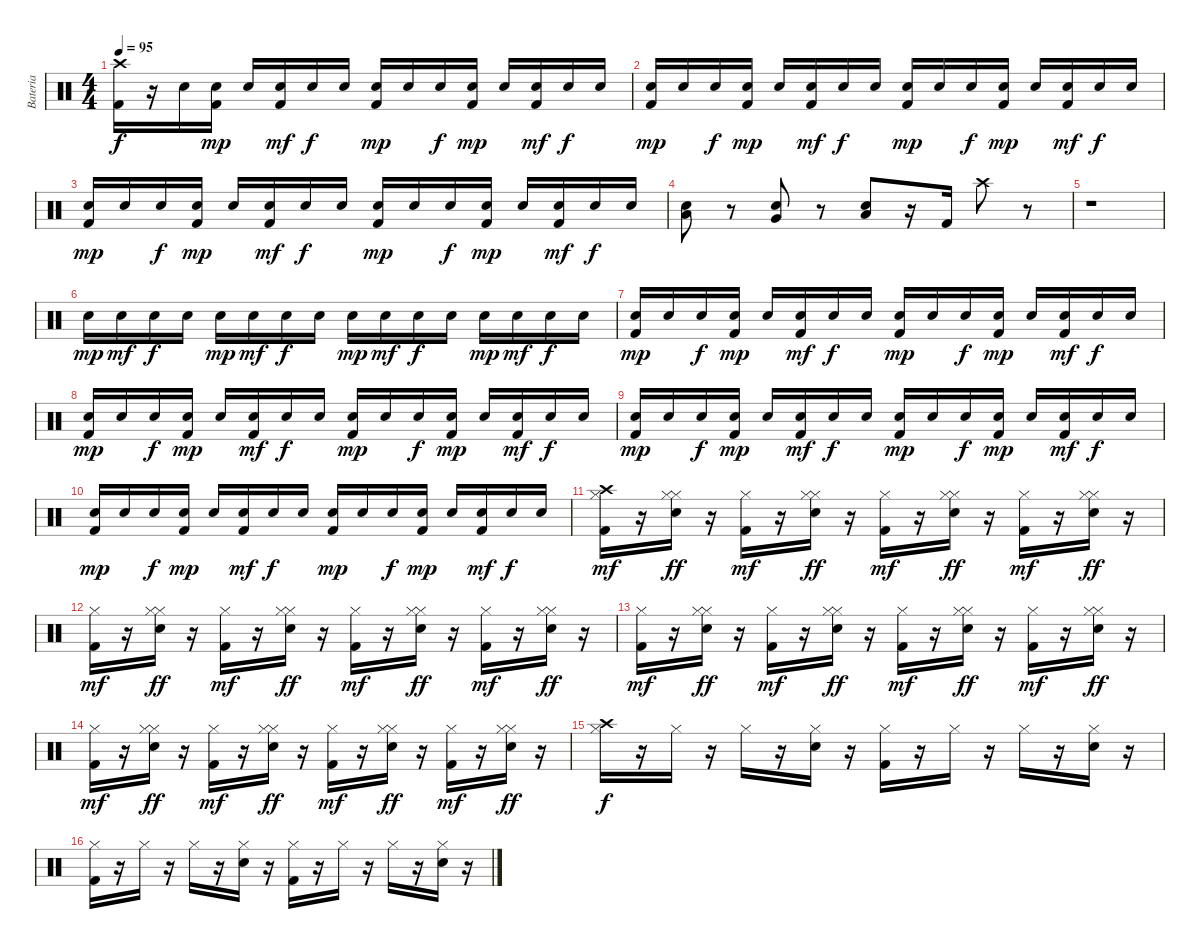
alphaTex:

\track ("Bateria" "Bateria") {instrument percussion}
\staff {score}
\articulation defaults
\ts (4 4)
\tempo 95
\clef neutral
\ks c
("Crash high (hit)" "Kick (hit) 2").16{dy f} r.16 "Snare (hit) 2".16 ("Snare (hit) 2" "Kick (hit) 2").16{dy mp} "Snare (hit) 2".16 ("Snare (hit) 2" "Kick (hit) 2").16{dy mf} "Snare (hit) 2".16{dy f} "Snare (hit) 2".16 ("Snare (hit) 2" "Kick (hit) 2").16{dy mp} "Snare (hit) 2".16 "Snare (hit) 2".16{dy f} ("Snare (hit) 2" "Kick (hit) 2").16{dy mp} "Snare (hit) 2".16 ("Snare (hit) 2" "Kick (hit) 2").16{dy mf} "Snare (hit) 2".16{dy f} "Snare (hit) 2".16 |
("Snare (hit) 2" "Kick (hit) 2").16{dy mp} "Snare (hit) 2".16 "Snare (hit) 2".16{dy f} ("Snare (hit) 2" "Kick (hit) 2").16{dy mp} "Snare (hit) 2".16 ("Snare (hit) 2" "Kick (hit) 2").16{dy mf} "Snare (hit) 2".16{dy f} "Snare (hit) 2".16 ("Snare (hit) 2" "Kick (hit) 2").16{dy mp} "Snare (hit) 2".16 "Snare (hit) 2".16{dy f} ("Snare (hit) 2" "Kick (hit) 2").16{dy mp} "Snare (hit) 2".16 ("Snare (hit) 2" "Kick (hit) 2").16{dy mf} "Snare (hit) 2".16{dy f} "Snare (hit) 2".16 |
("Snare (hit) 2" "Kick (hit) 2").16{dy mp} "Snare (hit) 2".16 "Snare (hit) 2".16{dy f} ("Snare (hit) 2" "Kick (hit) 2").16{dy mp} "Snare (hit) 2".16 ("Snare (hit) 2" "Kick (hit) 2").16{dy mf} "Snare (hit) 2".16{dy f} "Snare (hit) 2".16 ("Snare (hit) 2" "Kick (hit) 2").16{dy mp} "Snare (hit) 2".16 "Snare (hit) 2".16{dy f} ("Snare (hit) 2" "Kick (hit) 2").16{dy mp} "Snare (hit) 2".16 ("Snare (hit) 2" "Kick (hit) 2").16{dy mf} "Snare (hit) 2".16{dy f} "Snare (hit) 2".16 |
("Low Tom (hit)" "Snare (hit) 2").8 r.8 ("Very Low Tom (hit)" "Snare (hit) 2").8 r.8 ("Low Floor Tom (hit)" "Snare (hit) 2").8 r.16 "Kick (hit) 2".16 "Crash high (hit)".8 r.8 |
r.1 |
"Snare (hit) 2".16{dy mp} "Snare (hit) 2".16{dy mf} "Snare (hit) 2".16{dy f} "Snare (hit) 2".16 "Snare (hit) 2".16{dy mp} "Snare (hit) 2".16{dy mf} "Snare (hit) 2".16{dy f} "Snare (hit) 2".16 "Snare (hit) 2".16{dy mp} "Snare (hit) 2".16{dy mf} "Snare (hit) 2".16{dy f} "Snare (hit) 2".16 "Snare (hit) 2".16{dy mp} "Snare (hit) 2".16{dy mf} "Snare (hit) 2".16{dy f} "Snare (hit) 2".16 |
("Snare (hit) 2" "Kick (hit) 2").16{dy mp} "Snare (hit) 2".16 "Snare (hit) 2".16{dy f} ("Snare (hit) 2" "Kick (hit) 2").16{dy mp} "Snare (hit) 2".16 ("Snare (hit) 2" "Kick (hit) 2").16{dy mf} "Snare (hit) 2".16{dy f} "Snare (hit) 2".16 ("Snare (hit) 2" "Kick (hit) 2").16{dy mp} "Snare (hit) 2".16 "Snare (hit) 2".16{dy f} ("Snare (hit) 2" "Kick (hit) 2").16{dy mp} "Snare (hit) 2".16 ("Snare (hit) 2" "Kick (hit) 2").16{dy mf} "Snare (hit) 2".16{dy f} "Snare (hit) 2".16 |
("Snare (hit) 2" "Kick (hit) 2").16{dy mp} "Snare (hit) 2".16 "Snare (hit) 2".16{dy f} ("Snare (hit) 2" "Kick (hit) 2").16{dy mp} "Snare (hit) 2".16 ("Snare (hit) 2" "Kick (hit) 2").16{dy mf} "Snare (hit) 2".16{dy f} "Snare (hit) 2".16 ("Snare (hit) 2" "Kick (hit) 2").16{dy mp} "Snare (hit) 2".16 "Snare (hit) 2".16{dy f} ("Snare (hit) 2" "Kick (hit) 2").16{dy mp} "Snare (hit) 2".16 ("Snare (hit) 2" "Kick (hit) 2").16{dy mf} "Snare (hit) 2".16{dy f} "Snare (hit) 2".16 |
("Snare (hit) 2" "Kick (hit) 2").16{dy mp} "Snare (hit) 2".16 "Snare (hit) 2".16{dy f} ("Snare (hit) 2" "Kick (hit) 2").16{dy mp} "Snare (hit) 2".16 ("Snare (hit) 2" "Kick (hit) 2").16{dy mf} "Snare (hit) 2".16{dy f} "Snare (hit) 2".16 ("Snare (hit) 2" "Kick (hit) 2").16{dy mp} "Snare (hit) 2".16 "Snare (hit) 2".16{dy f} ("Snare (hit) 2" "Kick (hit) 2").16{dy mp} "Snare (hit) 2".16 ("Snare (hit) 2" "Kick (hit) 2").16{dy mf} "Snare (hit) 2".16{dy f} "Snare (hit) 2".16 |
("Snare (hit) 2" "Kick (hit) 2").16{dy mp} "Snare (hit) 2".16 "Snare (hit) 2".16{dy f} ("Snare (hit) 2" "Kick (hit) 2").16{dy mp} "Snare (hit) 2".16 ("Snare (hit) 2" "Kick (hit) 2").16{dy mf} "Snare (hit) 2".16{dy f} "Snare (hit) 2".16 ("Snare (hit) 2" "Kick (hit) 2").16{dy mp} "Snare (hit) 2".16 "Snare (hit) 2".16{dy f} ("Snare (hit) 2" "Kick (hit) 2").16{dy mp} "Snare (hit) 2".16 ("Snare (hit) 2" "Kick (hit) 2").16{dy mf} "Snare (hit) 2".16{dy f} "Snare (hit) 2".16 |
("Crash high (hit)" "Hi-Hat (closed)" "Kick (hit) 2").16{dy mf} r.16 ("Hi-Hat (closed)" "Hi-Hat (closed)" "Snare (hit) 2").16{dy ff} r.16 ("Hi-Hat (closed)" "Kick (hit) 2").16{dy mf} r.16 ("Hi-Hat (closed)" "Hi-Hat (closed)" "Snare (hit) 2").16{dy ff} r.16 ("Hi-Hat (closed)" "Kick (hit) 2").16{dy mf} r.16 ("Hi-Hat (closed)" "Hi-Hat (closed)" "Snare (hit) 2").16{dy ff} r.16 ("Hi-Hat (closed)" "Kick (hit) 2").16{dy mf} r.16 ("Hi-Hat (closed)" "Hi-Hat (closed)" "Snare (hit) 2").16{dy ff} r.16 |
("Hi-Hat (closed)" "Kick (hit) 2").16{dy mf} r.16 ("Hi-Hat (closed)" "Hi-Hat (closed)" "Snare (hit) 2").16{dy ff} r.16 ("Hi-Hat (closed)" "Kick (hit) 2").16{dy mf} r.16 ("Hi-Hat (closed)" "Hi-Hat (closed)" "Snare (hit) 2").16{dy ff} r.16 ("Hi-Hat (closed)" "Kick (hit) 2").16{dy mf} r.16 ("Hi-Hat (closed)" "Hi-Hat (closed)" "Snare (hit) 2").16{dy ff} r.16 ("Hi-Hat (closed)" "Kick (hit) 2").16{dy mf} r.16 ("Hi-Hat (closed)" "Hi-Hat (closed)" "Snare (hit) 2").16{dy ff} r.16 |
("Hi-Hat (closed)" "Kick (hit) 2").16{dy mf} r.16 ("Hi-Hat (closed)" "Hi-Hat (closed)" "Snare (hit) 2").16{dy ff} r.16 ("Hi-Hat (closed)" "Kick (hit) 2").16{dy mf} r.16 ("Hi-Hat (closed)" "Hi-Hat (closed)" "Snare (hit) 2").16{dy ff} r.16 ("Hi-Hat (closed)" "Kick (hit) 2").16{dy mf} r.16 ("Hi-Hat (closed)" "Hi-Hat (closed)" "Snare (hit) 2").16{dy ff} r.16 ("Hi-Hat (closed)" "Kick (hit) 2").16{dy mf} r.16 ("Hi-Hat (closed)" "Hi-Hat (closed)" "Snare (hit) 2").16{dy ff} r.16 |
("Hi-Hat (closed)" "Kick (hit) 2").16{dy mf} r.16 ("Hi-Hat (closed)" "Hi-Hat (closed)" "Snare (hit) 2").16{dy ff} r.16 ("Hi-Hat (closed)" "Kick (hit) 2").16{dy mf} r.16 ("Hi-Hat (closed)" "Hi-Hat (closed)" "Snare (hit) 2").16{dy ff} r.16 ("Hi-Hat (closed)" "Kick (hit) 2").16{dy mf} r.16 ("Hi-Hat (closed)" "Hi-Hat (closed)" "Snare (hit) 2").16{dy ff} r.16 ("Hi-Hat (closed)" "Kick (hit) 2").16{dy mf} r.16 ("Hi-Hat (closed)" "Hi-Hat (closed)" "Snare (hit) 2").16{dy ff} r.16 |
("Crash high (hit)" "Hi-Hat (closed)").16{dy f} r.16 "Hi-Hat (closed)".16 r.16 "Hi-Hat (closed)".16 r.16 ("Hi-Hat (closed)" "Snare (hit) 2").16 r.16 ("Hi-Hat (closed)" "Kick (hit) 2").16 r.16 "Hi-Hat (closed)".16 r.16 "Hi-Hat (closed)".16 r.16 ("Hi-Hat (closed)" "Snare (hit) 2").16 r.16 |
("Hi-Hat (closed)" "Kick (hit) 2").16 r.16 "Hi-Hat (closed)".16 r.16 "Hi-Hat (closed)".16 r.16 ("Hi-Hat (closed)" "Snare (hit) 2").16 r.16 ("Hi-Hat (closed)" "Kick (hit) 2").16 r.16 "Hi-Hat (closed)".16 r.16 "Hi-Hat (closed)".16 r.16 ("Hi-Hat (closed)" "Snare (hit) 2").16 r.16
